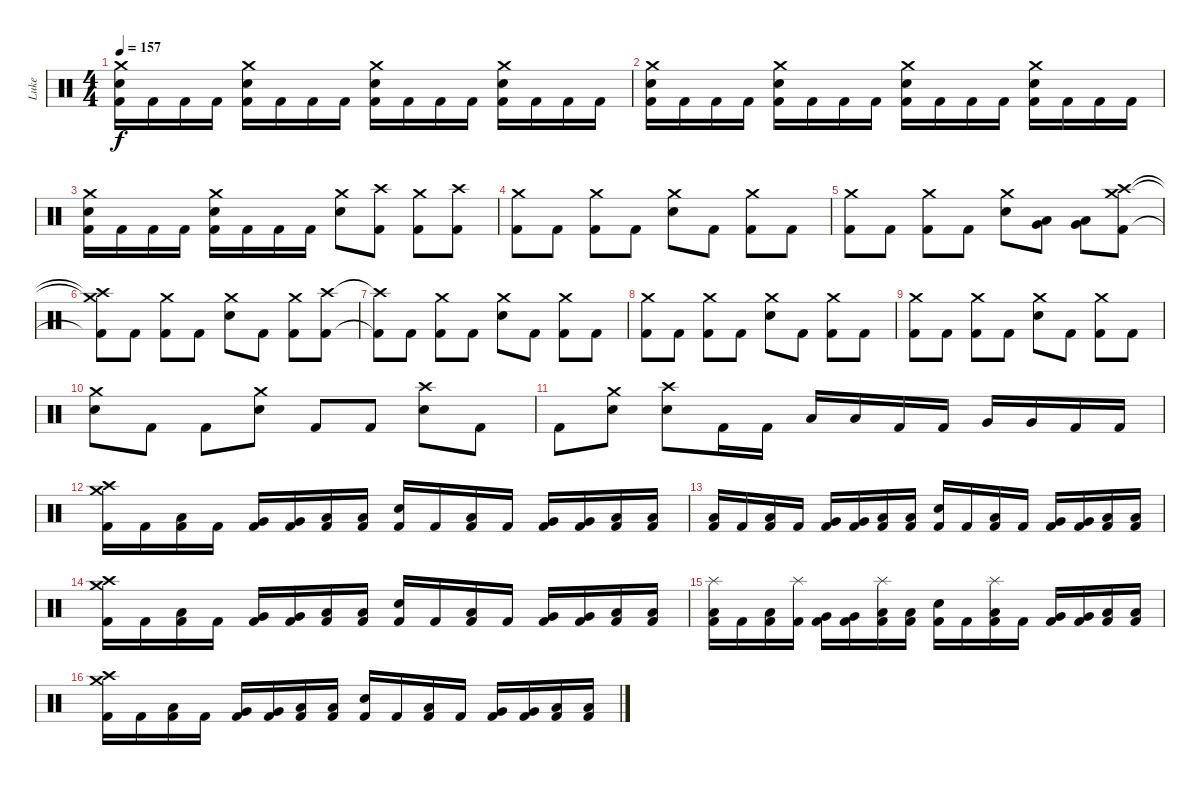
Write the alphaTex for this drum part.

\track ("Luke" "Luke") {instrument percussion}
\staff {score}
\articulation defaults
\ts (4 4)
\tempo 157
\clef neutral
\ks c
("Crash medium (hit)" "Electric Snare (hit)" "Kick (hit) 2").16{dy f} "Kick (hit) 2".16 "Kick (hit) 2".16 "Kick (hit) 2".16 ("Crash medium (hit)" "Electric Snare (hit)" "Kick (hit) 2").16 "Kick (hit) 2".16 "Kick (hit) 2".16 "Kick (hit) 2".16 ("Crash medium (hit)" "Electric Snare (hit)" "Kick (hit) 2").16 "Kick (hit) 2".16 "Kick (hit) 2".16 "Kick (hit) 2".16 ("Crash medium (hit)" "Electric Snare (hit)" "Kick (hit) 2").16 "Kick (hit) 2".16 "Kick (hit) 2".16 "Kick (hit) 2".16 |
("Crash medium (hit)" "Electric Snare (hit)" "Kick (hit) 2").16 "Kick (hit) 2".16 "Kick (hit) 2".16 "Kick (hit) 2".16 ("Crash medium (hit)" "Electric Snare (hit)" "Kick (hit) 2").16 "Kick (hit) 2".16 "Kick (hit) 2".16 "Kick (hit) 2".16 ("Crash medium (hit)" "Electric Snare (hit)" "Kick (hit) 2").16 "Kick (hit) 2".16 "Kick (hit) 2".16 "Kick (hit) 2".16 ("Crash medium (hit)" "Electric Snare (hit)" "Kick (hit) 2").16 "Kick (hit) 2".16 "Kick (hit) 2".16 "Kick (hit) 2".16 |
("Crash medium (hit)" "Electric Snare (hit)" "Kick (hit) 2").16 "Kick (hit) 2".16 "Kick (hit) 2".16 "Kick (hit) 2".16 ("Crash medium (hit)" "Electric Snare (hit)" "Kick (hit) 2").16 "Kick (hit) 2".16 "Kick (hit) 2".16 "Kick (hit) 2".16 ("Crash medium (hit)" "Electric Snare (hit)").8 ("Crash high (hit)" "Kick (hit) 2").8 ("Crash medium (hit)" "Kick (hit) 2").8 ("Crash high (hit)" "Kick (hit) 2").8 |
("Crash medium (hit)" "Kick (hit) 2").8 "Kick (hit) 2".8 ("Crash medium (hit)" "Kick (hit) 2").8 "Kick (hit) 2".8 ("Crash medium (hit)" "Electric Snare (hit)").8 "Kick (hit) 2".8 ("Crash medium (hit)" "Kick (hit) 2").8 "Kick (hit) 2".8 |
("Crash medium (hit)" "Kick (hit) 2").8 "Kick (hit) 2".8 ("Crash medium (hit)" "Kick (hit) 2").8 "Kick (hit) 2".8 ("Crash medium (hit)" "Electric Snare (hit)").8 ("Very Low Tom (hit)" "Low Floor Tom (hit)").8 ("Very Low Tom (hit)" "Low Floor Tom (hit)").8 ("Crash medium (hit)" "Crash high (hit)" "Kick (hit) 2").8 |
("Crash medium (hit)"{t} "Crash high (hit)"{t} "Kick (hit) 2"{t}).8 "Kick (hit) 2".8 ("Crash medium (hit)" "Kick (hit) 2").8 "Kick (hit) 2".8 ("Crash medium (hit)" "Electric Snare (hit)").8 "Kick (hit) 2".8 ("Crash medium (hit)" "Kick (hit) 2").8 ("Crash high (hit)" "Kick (hit) 2").8 |
("Crash high (hit)"{t} "Kick (hit) 2"{t}).8 "Kick (hit) 2".8 ("Crash medium (hit)" "Kick (hit) 2").8 "Kick (hit) 2".8 ("Crash medium (hit)" "Electric Snare (hit)").8 "Kick (hit) 2".8 ("Crash medium (hit)" "Kick (hit) 2").8 "Kick (hit) 2".8 |
("Crash medium (hit)" "Kick (hit) 2").8 "Kick (hit) 2".8 ("Crash medium (hit)" "Kick (hit) 2").8 "Kick (hit) 2".8 ("Crash medium (hit)" "Electric Snare (hit)").8 "Kick (hit) 2".8 ("Crash medium (hit)" "Kick (hit) 2").8 "Kick (hit) 2".8 |
("Crash medium (hit)" "Kick (hit) 2").8 "Kick (hit) 2".8 ("Crash medium (hit)" "Kick (hit) 2").8 "Kick (hit) 2".8 ("Crash medium (hit)" "Electric Snare (hit)").8 "Kick (hit) 2".8 ("Crash medium (hit)" "Kick (hit) 2").8 "Kick (hit) 2".8 |
("Crash medium (hit)" "Electric Snare (hit)").8 "Kick (hit) 2".8 "Kick (hit) 2".8 ("Crash medium (hit)" "Electric Snare (hit)").8 "Kick (hit) 2".8 "Kick (hit) 2".8 ("Crash high (hit)" "Electric Snare (hit)").8 "Kick (hit) 2".8 |
"Kick (hit) 2".8 ("Crash medium (hit)" "Electric Snare (hit)").8 ("Crash high (hit)" "Electric Snare (hit)").8 "Kick (hit) 2".16 "Kick (hit) 2".16 "Low Tom (hit)".16 "Low Tom (hit)".16 "Kick (hit) 2".16 "Kick (hit) 2".16 "Very Low Tom (hit)".16 "Very Low Tom (hit)".16 "Kick (hit) 2".16 "Kick (hit) 2".16 |
("Crash medium (hit)" "Crash high (hit)" "Kick (hit) 2").16 "Kick (hit) 2".16 ("Low Tom (hit)" "Kick (hit) 2").16 "Kick (hit) 2".16 ("Very Low Tom (hit)" "Kick (hit) 2").16 ("Very Low Tom (hit)" "Kick (hit) 2").16 ("Low Floor Tom (hit)" "Kick (hit) 2").16 ("Low Floor Tom (hit)" "Kick (hit) 2").16 ("Electric Snare (hit)" "Kick (hit) 2").16 "Kick (hit) 2".16 ("Low Tom (hit)" "Kick (hit) 2").16 "Kick (hit) 2".16 ("Very Low Tom (hit)" "Kick (hit) 2").16 ("Very Low Tom (hit)" "Kick (hit) 2").16 ("Low Floor Tom (hit)" "Kick (hit) 2").16 ("Low Floor Tom (hit)" "Kick (hit) 2").16 |
("Low Floor Tom (hit)" "Kick (hit) 2").16 "Kick (hit) 2".16 ("Low Tom (hit)" "Kick (hit) 2").16 "Kick (hit) 2".16 ("Very Low Tom (hit)" "Kick (hit) 2").16 ("Very Low Tom (hit)" "Kick (hit) 2").16 ("Low Floor Tom (hit)" "Kick (hit) 2").16 ("Low Floor Tom (hit)" "Kick (hit) 2").16 ("Electric Snare (hit)" "Kick (hit) 2").16 "Kick (hit) 2".16 ("Low Tom (hit)" "Kick (hit) 2").16 "Kick (hit) 2".16 ("Very Low Tom (hit)" "Kick (hit) 2").16 ("Very Low Tom (hit)" "Kick (hit) 2").16 ("Low Floor Tom (hit)" "Kick (hit) 2").16 ("Low Floor Tom (hit)" "Kick (hit) 2").16 |
("Crash medium (hit)" "Crash high (hit)" "Kick (hit) 2").16 "Kick (hit) 2".16 ("Low Tom (hit)" "Kick (hit) 2").16 "Kick (hit) 2".16 ("Very Low Tom (hit)" "Kick (hit) 2").16 ("Very Low Tom (hit)" "Kick (hit) 2").16 ("Low Floor Tom (hit)" "Kick (hit) 2").16 ("Low Floor Tom (hit)" "Kick (hit) 2").16 ("Electric Snare (hit)" "Kick (hit) 2").16 "Kick (hit) 2".16 ("Low Tom (hit)" "Kick (hit) 2").16 "Kick (hit) 2".16 ("Very Low Tom (hit)" "Kick (hit) 2").16 ("Very Low Tom (hit)" "Kick (hit) 2").16 ("Low Floor Tom (hit)" "Kick (hit) 2").16 ("Low Floor Tom (hit)" "Kick (hit) 2").16 |
("Splash (hit)" "Low Floor Tom (hit)" "Kick (hit) 2").16 "Kick (hit) 2".16 ("Low Tom (hit)" "Kick (hit) 2").16 ("Splash (hit)" "Kick (hit) 2").16 ("Very Low Tom (hit)" "Kick (hit) 2").16 ("Very Low Tom (hit)" "Kick (hit) 2").16 ("Splash (hit)" "Low Floor Tom (hit)" "Kick (hit) 2").16 ("Low Floor Tom (hit)" "Kick (hit) 2").16 ("Electric Snare (hit)" "Kick (hit) 2").16 "Kick (hit) 2".16 ("Splash (hit)" "Low Tom (hit)" "Kick (hit) 2").16 "Kick (hit) 2".16 ("Very Low Tom (hit)" "Kick (hit) 2").16 ("Very Low Tom (hit)" "Kick (hit) 2").16 ("Low Floor Tom (hit)" "Kick (hit) 2").16 ("Low Floor Tom (hit)" "Kick (hit) 2").16 |
("Crash medium (hit)" "Crash high (hit)" "Kick (hit) 2").16 "Kick (hit) 2".16 ("Low Tom (hit)" "Kick (hit) 2").16 "Kick (hit) 2".16 ("Very Low Tom (hit)" "Kick (hit) 2").16 ("Very Low Tom (hit)" "Kick (hit) 2").16 ("Low Floor Tom (hit)" "Kick (hit) 2").16 ("Low Floor Tom (hit)" "Kick (hit) 2").16 ("Electric Snare (hit)" "Kick (hit) 2").16 "Kick (hit) 2".16 ("Low Tom (hit)" "Kick (hit) 2").16 "Kick (hit) 2".16 ("Very Low Tom (hit)" "Kick (hit) 2").16 ("Very Low Tom (hit)" "Kick (hit) 2").16 ("Low Floor Tom (hit)" "Kick (hit) 2").16 ("Low Floor Tom (hit)" "Kick (hit) 2").16
